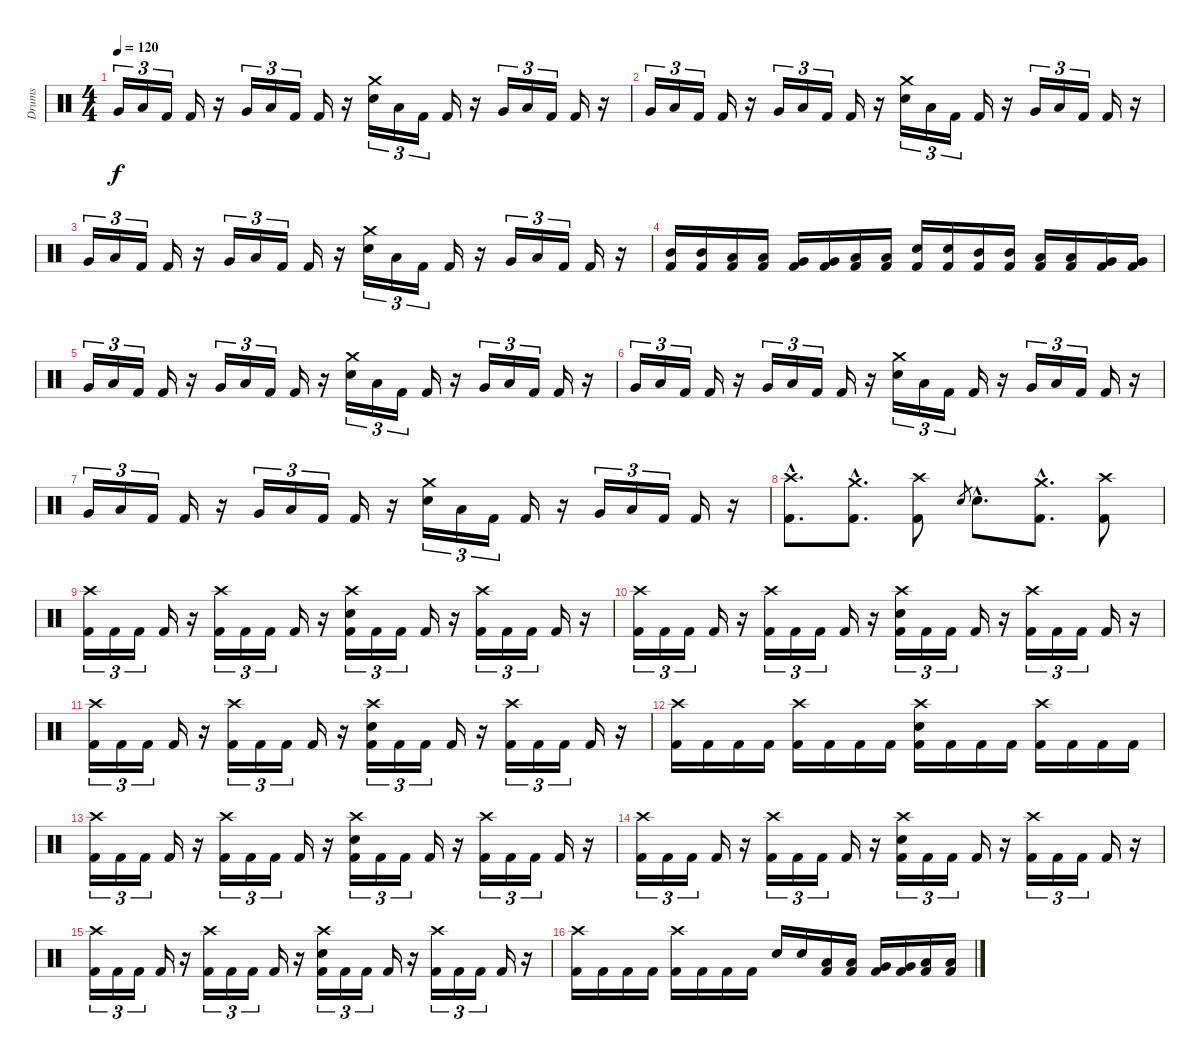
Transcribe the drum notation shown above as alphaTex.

\track ("Drums" "Drums") {instrument percussion}
\staff {score}
\articulation defaults
\ts (4 4)
\tempo 120
\clef neutral
\ks c "Very Low Tom (hit)".16{tu (3 2) dy f} "Low Floor Tom (hit)".16{tu (3 2)} "Kick (hit) 2".16{tu (3 2)} "Kick (hit) 2".16
r.16 "Very Low Tom (hit)".16{tu (3 2)} "Low Floor Tom (hit)".16{tu (3 2)} "Kick (hit) 2".16{tu (3 2)} "Kick (hit) 2".16 r.16 ("Crash medium (hit)" "Snare (hit) 2").16{tu (3 2)} "Low Floor Tom (hit)".16{tu (3 2)} "Kick (hit) 2".16{tu (3 2)} "Kick (hit) 2".16 r.16 "Very Low Tom (hit)".16{tu (3 2)} "Low Floor Tom (hit)".16{tu (3 2)} "Kick (hit) 2".16{tu (3 2)} "Kick (hit) 2".16 r.16 |
"Very Low Tom (hit)".16{tu (3 2)} "Low Floor Tom (hit)".16{tu (3 2)} "Kick (hit) 2".16{tu (3 2)} "Kick (hit) 2".16 r.16 "Very Low Tom (hit)".16{tu (3 2)} "Low Floor Tom (hit)".16{tu (3 2)} "Kick (hit) 2".16{tu (3 2)} "Kick (hit) 2".16 r.16 ("Crash medium (hit)" "Snare (hit) 2").16{tu (3 2)} "Low Floor Tom (hit)".16{tu (3 2)} "Kick (hit) 2".16{tu (3 2)} "Kick (hit) 2".16 r.16 "Very Low Tom (hit)".16{tu (3 2)} "Low Floor Tom (hit)".16{tu (3 2)} "Kick (hit) 2".16{tu (3 2)} "Kick (hit) 2".16 r.16 |
"Very Low Tom (hit)".16{tu (3 2)} "Low Floor Tom (hit)".16{tu (3 2)} "Kick (hit) 2".16{tu (3 2)} "Kick (hit) 2".16 r.16 "Very Low Tom (hit)".16{tu (3 2)} "Low Floor Tom (hit)".16{tu (3 2)} "Kick (hit) 2".16{tu (3 2)} "Kick (hit) 2".16 r.16 ("Crash medium (hit)" "Snare (hit) 2").16{tu (3 2)} "Low Floor Tom (hit)".16{tu (3 2)} "Kick (hit) 2".16{tu (3 2)} "Kick (hit) 2".16 r.16 "Very Low Tom (hit)".16{tu (3 2)} "Low Floor Tom (hit)".16{tu (3 2)} "Kick (hit) 2".16{tu (3 2)} "Kick (hit) 2".16 r.16 |
("Kick (hit) 2" "Mid Tom (hit)").16 ("Kick (hit) 2" "Mid Tom (hit)").16 ("Kick (hit) 2" "Low Tom (hit)").16 ("Kick (hit) 2" "Low Tom (hit)").16 ("Kick (hit) 2" "Very Low Tom (hit)").16 ("Kick (hit) 2" "Very Low Tom (hit)").16 ("Kick (hit) 2" "Low Floor Tom (hit)").16 ("Kick (hit) 2" "Low Floor Tom (hit)").16 ("Kick (hit) 2" "Snare (hit) 2").16 ("Kick (hit) 2" "Snare (hit) 2").16 ("Kick (hit) 2" "Mid Tom (hit)").16 ("Kick (hit) 2" "Mid Tom (hit)").16 ("Kick (hit) 2" "Low Tom (hit)").16 ("Kick (hit) 2" "Low Tom (hit)").16 ("Kick (hit) 2" "Very Low Tom (hit)").16 ("Kick (hit) 2" "Very Low Tom (hit)").16 |
"Very Low Tom (hit)".16{tu (3 2)} "Low Floor Tom (hit)".16{tu (3 2)} "Kick (hit) 2".16{tu (3 2)} "Kick (hit) 2".16 r.16 "Very Low Tom (hit)".16{tu (3 2)} "Low Floor Tom (hit)".16{tu (3 2)} "Kick (hit) 2".16{tu (3 2)} "Kick (hit) 2".16 r.16 ("Crash medium (hit)" "Snare (hit) 2").16{tu (3 2)} "Low Floor Tom (hit)".16{tu (3 2)} "Kick (hit) 2".16{tu (3 2)} "Kick (hit) 2".16 r.16 "Very Low Tom (hit)".16{tu (3 2)} "Low Floor Tom (hit)".16{tu (3 2)} "Kick (hit) 2".16{tu (3 2)} "Kick (hit) 2".16 r.16 |
"Very Low Tom (hit)".16{tu (3 2)} "Low Floor Tom (hit)".16{tu (3 2)} "Kick (hit) 2".16{tu (3 2)} "Kick (hit) 2".16 r.16 "Very Low Tom (hit)".16{tu (3 2)} "Low Floor Tom (hit)".16{tu (3 2)} "Kick (hit) 2".16{tu (3 2)} "Kick (hit) 2".16 r.16 ("Crash medium (hit)" "Snare (hit) 2").16{tu (3 2)} "Low Floor Tom (hit)".16{tu (3 2)} "Kick (hit) 2".16{tu (3 2)} "Kick (hit) 2".16 r.16 "Very Low Tom (hit)".16{tu (3 2)} "Low Floor Tom (hit)".16{tu (3 2)} "Kick (hit) 2".16{tu (3 2)} "Kick (hit) 2".16 r.16 |
"Very Low Tom (hit)".16{tu (3 2)} "Low Floor Tom (hit)".16{tu (3 2)} "Kick (hit) 2".16{tu (3 2)} "Kick (hit) 2".16 r.16 "Very Low Tom (hit)".16{tu (3 2)} "Low Floor Tom (hit)".16{tu (3 2)} "Kick (hit) 2".16{tu (3 2)} "Kick (hit) 2".16 r.16 ("Crash medium (hit)" "Snare (hit) 2").16{tu (3 2)} "Low Floor Tom (hit)".16{tu (3 2)} "Kick (hit) 2".16{tu (3 2)} "Kick (hit) 2".16 r.16 "Very Low Tom (hit)".16{tu (3 2)} "Low Floor Tom (hit)".16{tu (3 2)} "Kick (hit) 2".16{tu (3 2)} "Kick (hit) 2".16 r.16 |
("Crash high (hit)"{hac} "Kick (hit) 2"{hac}).8{d} ("Crash medium (hit)"{hac} "Kick (hit) 2"{hac}).8{d} ("Crash high (hit)" "Kick (hit) 2").8 "Snare (hit) 2".8{gr} "Snare (hit) 2"{hac}.8{d} ("Crash medium (hit)"{hac} "Kick (hit) 2"{hac}).8{d} ("Crash high (hit)" "Kick (hit) 2").8 |
("Crash high (hit)" "Kick (hit) 2").16{tu (3 2)} "Kick (hit) 2".16{tu (3 2)} "Kick (hit) 2".16{tu (3 2)} "Kick (hit) 2".16 r.16 ("Crash high (hit)" "Kick (hit) 2").16{tu (3 2)} "Kick (hit) 2".16{tu (3 2)} "Kick (hit) 2".16{tu (3 2)} "Kick (hit) 2".16 r.16 ("Crash high (hit)" "Snare (hit) 2" "Kick (hit) 2").16{tu (3 2)} "Kick (hit) 2".16{tu (3 2)} "Kick (hit) 2".16{tu (3 2)} "Kick (hit) 2".16 r.16 ("Crash high (hit)" "Kick (hit) 2").16{tu (3 2)} "Kick (hit) 2".16{tu (3 2)} "Kick (hit) 2".16{tu (3 2)} "Kick (hit) 2".16 r.16 |
("Crash high (hit)" "Kick (hit) 2").16{tu (3 2)} "Kick (hit) 2".16{tu (3 2)} "Kick (hit) 2".16{tu (3 2)} "Kick (hit) 2".16 r.16 ("Crash high (hit)" "Kick (hit) 2").16{tu (3 2)} "Kick (hit) 2".16{tu (3 2)} "Kick (hit) 2".16{tu (3 2)} "Kick (hit) 2".16 r.16 ("Crash high (hit)" "Snare (hit) 2" "Kick (hit) 2").16{tu (3 2)} "Kick (hit) 2".16{tu (3 2)} "Kick (hit) 2".16{tu (3 2)} "Kick (hit) 2".16 r.16 ("Crash high (hit)" "Kick (hit) 2").16{tu (3 2)} "Kick (hit) 2".16{tu (3 2)} "Kick (hit) 2".16{tu (3 2)} "Kick (hit) 2".16 r.16 |
("Crash high (hit)" "Kick (hit) 2").16{tu (3 2)} "Kick (hit) 2".16{tu (3 2)} "Kick (hit) 2".16{tu (3 2)} "Kick (hit) 2".16 r.16 ("Crash high (hit)" "Kick (hit) 2").16{tu (3 2)} "Kick (hit) 2".16{tu (3 2)} "Kick (hit) 2".16{tu (3 2)} "Kick (hit) 2".16 r.16 ("Crash high (hit)" "Snare (hit) 2" "Kick (hit) 2").16{tu (3 2)} "Kick (hit) 2".16{tu (3 2)} "Kick (hit) 2".16{tu (3 2)} "Kick (hit) 2".16 r.16 ("Crash high (hit)" "Kick (hit) 2").16{tu (3 2)} "Kick (hit) 2".16{tu (3 2)} "Kick (hit) 2".16{tu (3 2)} "Kick (hit) 2".16 r.16 |
("Crash high (hit)" "Kick (hit) 2").16 "Kick (hit) 2".16 "Kick (hit) 2".16 "Kick (hit) 2".16 ("Crash high (hit)" "Kick (hit) 2").16 "Kick (hit) 2".16 "Kick (hit) 2".16 "Kick (hit) 2".16 ("Crash high (hit)" "Snare (hit) 2" "Kick (hit) 2").16 "Kick (hit) 2".16 "Kick (hit) 2".16 "Kick (hit) 2".16 ("Crash high (hit)" "Kick (hit) 2").16 "Kick (hit) 2".16 "Kick (hit) 2".16 "Kick (hit) 2".16 |
("Crash high (hit)" "Kick (hit) 2").16{tu (3 2)} "Kick (hit) 2".16{tu (3 2)} "Kick (hit) 2".16{tu (3 2)} "Kick (hit) 2".16 r.16 ("Crash high (hit)" "Kick (hit) 2").16{tu (3 2)} "Kick (hit) 2".16{tu (3 2)} "Kick (hit) 2".16{tu (3 2)} "Kick (hit) 2".16 r.16 ("Crash high (hit)" "Snare (hit) 2" "Kick (hit) 2").16{tu (3 2)} "Kick (hit) 2".16{tu (3 2)} "Kick (hit) 2".16{tu (3 2)} "Kick (hit) 2".16 r.16 ("Crash high (hit)" "Kick (hit) 2").16{tu (3 2)} "Kick (hit) 2".16{tu (3 2)} "Kick (hit) 2".16{tu (3 2)} "Kick (hit) 2".16 r.16 |
("Crash high (hit)" "Kick (hit) 2").16{tu (3 2)} "Kick (hit) 2".16{tu (3 2)} "Kick (hit) 2".16{tu (3 2)} "Kick (hit) 2".16 r.16 ("Crash high (hit)" "Kick (hit) 2").16{tu (3 2)} "Kick (hit) 2".16{tu (3 2)} "Kick (hit) 2".16{tu (3 2)} "Kick (hit) 2".16 r.16 ("Crash high (hit)" "Snare (hit) 2" "Kick (hit) 2").16{tu (3 2)} "Kick (hit) 2".16{tu (3 2)} "Kick (hit) 2".16{tu (3 2)} "Kick (hit) 2".16 r.16 ("Crash high (hit)" "Kick (hit) 2").16{tu (3 2)} "Kick (hit) 2".16{tu (3 2)} "Kick (hit) 2".16{tu (3 2)} "Kick (hit) 2".16 r.16 |
("Crash high (hit)" "Kick (hit) 2").16{tu (3 2)} "Kick (hit) 2".16{tu (3 2)} "Kick (hit) 2".16{tu (3 2)} "Kick (hit) 2".16 r.16 ("Crash high (hit)" "Kick (hit) 2").16{tu (3 2)} "Kick (hit) 2".16{tu (3 2)} "Kick (hit) 2".16{tu (3 2)} "Kick (hit) 2".16 r.16 ("Crash high (hit)" "Snare (hit) 2" "Kick (hit) 2").16{tu (3 2)} "Kick (hit) 2".16{tu (3 2)} "Kick (hit) 2".16{tu (3 2)} "Kick (hit) 2".16 r.16 ("Crash high (hit)" "Kick (hit) 2").16{tu (3 2)} "Kick (hit) 2".16{tu (3 2)} "Kick (hit) 2".16{tu (3 2)} "Kick (hit) 2".16 r.16 |
("Crash high (hit)" "Kick (hit) 2").16 "Kick (hit) 2".16 "Kick (hit) 2".16 "Kick (hit) 2".16 ("Crash high (hit)" "Kick (hit) 2").16 "Kick (hit) 2".16 "Kick (hit) 2".16 "Kick (hit) 2".16 "Snare (hit) 2".16 "Snare (hit) 2".16 ("Kick (hit) 2" "Low Tom (hit)").16 ("Kick (hit) 2" "Low Tom (hit)").16 ("Kick (hit) 2" "Very Low Tom (hit)").16 ("Kick (hit) 2" "Very Low Tom (hit)").16 ("Kick (hit) 2" "Low Floor Tom (hit)").16 ("Kick (hit) 2" "Low Floor Tom (hit)").16
